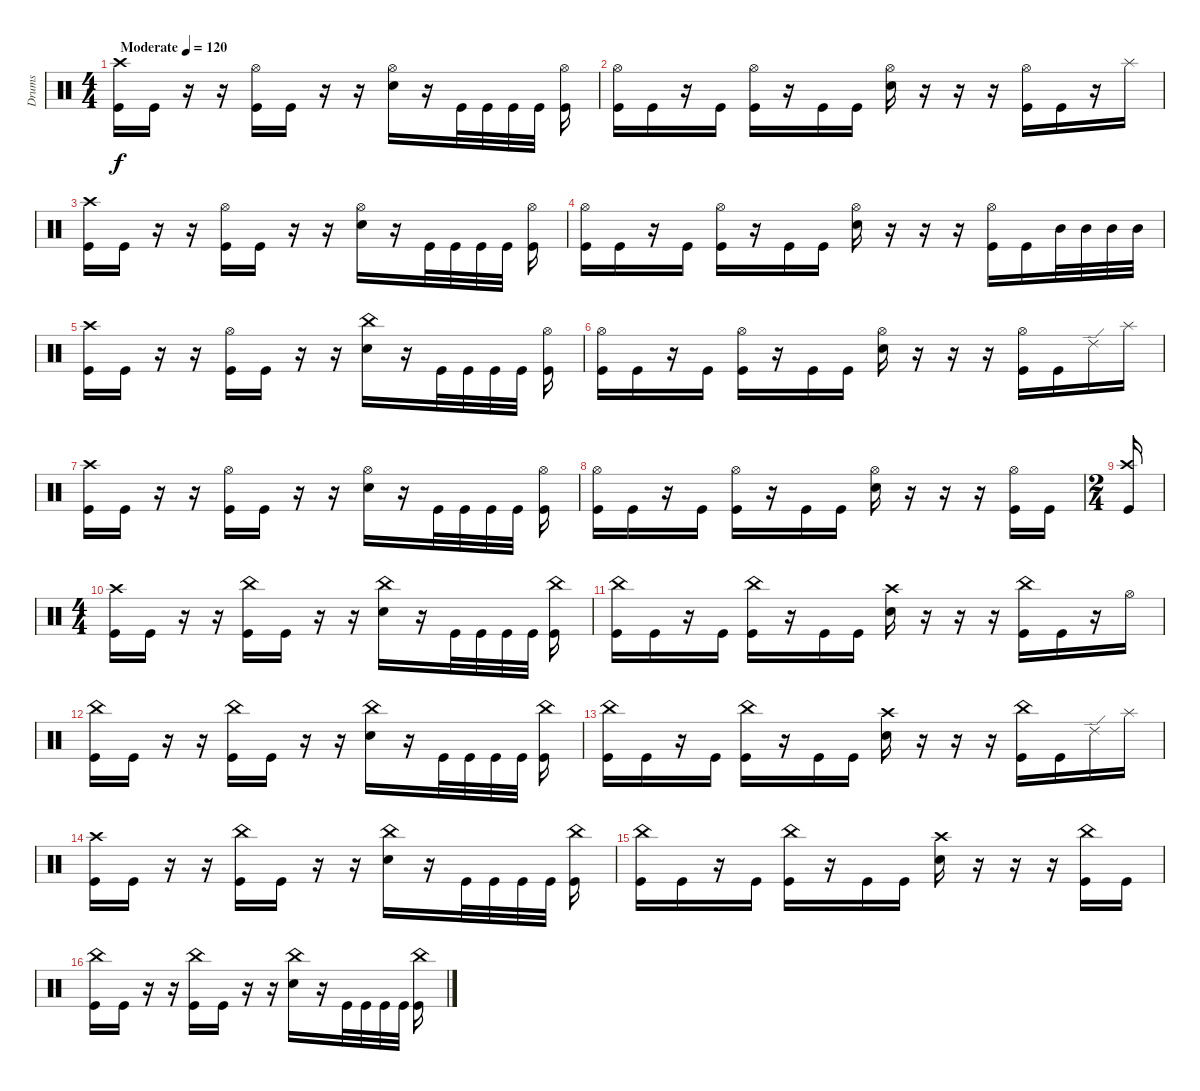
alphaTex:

\track ("Drums" "Drums") {instrument percussion}
\staff {score}
\articulation defaults
\ts (4 4)
\tempo (120 "Moderate")
\clef neutral
\ks c
("Crash high (hit)" "Kick (hit)").16{dy f} "Kick (hit)".16 r.16 r.16 ("Hi-Hat (open)" "Kick (hit)").16 "Kick (hit)".16 r.16 r.16 ("Hi-Hat (open)" "Electric Snare (hit)").16 r.16 "Kick (hit)".32 "Kick (hit)".32 "Kick (hit)".32 "Kick (hit)".32 ("Hi-Hat (open)" "Kick (hit)").16 |
("Hi-Hat (open)" "Kick (hit)").16 "Kick (hit)".16 r.16 "Kick (hit)".16 ("Hi-Hat (open)" "Kick (hit)").16 r.16 "Kick (hit)".16 "Kick (hit)".16 ("Hi-Hat (open)" "Electric Snare (hit)").16 r.16 r.16 r.16 ("Hi-Hat (open)" "Kick (hit)").16 "Kick (hit)".16 r.16 "Splash (hit)".16 |
("Crash high (hit)" "Kick (hit)").16 "Kick (hit)".16 r.16 r.16 ("Hi-Hat (open)" "Kick (hit)").16 "Kick (hit)".16 r.16 r.16 ("Hi-Hat (open)" "Electric Snare (hit)").16 r.16 "Kick (hit)".32 "Kick (hit)".32 "Kick (hit)".32 "Kick (hit)".32 ("Hi-Hat (open)" "Kick (hit)").16 |
("Hi-Hat (open)" "Kick (hit)").16 "Kick (hit)".16 r.16 "Kick (hit)".16 ("Hi-Hat (open)" "Kick (hit)").16 r.16 "Kick (hit)".16 "Kick (hit)".16 ("Hi-Hat (open)" "Electric Snare (hit)").16 r.16 r.16 r.16 ("Hi-Hat (open)" "Kick (hit)").16 "Kick (hit)".16 "Mid Tom (hit)".32 "Mid Tom (hit)".32 "Mid Tom (hit)".32 "Mid Tom (hit)".32 |
("Crash high (hit)" "Kick (hit)").16 "Kick (hit)".16 r.16 r.16 ("Hi-Hat (open)" "Kick (hit)").16 "Kick (hit)".16 r.16 r.16 ("China (hit)" "Electric Snare (hit)").16 r.16 "Kick (hit)".32 "Kick (hit)".32 "Kick (hit)".32 "Kick (hit)".32 ("Hi-Hat (open)" "Kick (hit)").16 |
("Hi-Hat (open)" "Kick (hit)").16 "Kick (hit)".16 r.16 "Kick (hit)".16 ("Hi-Hat (open)" "Kick (hit)").16 r.16 "Kick (hit)".16 "Kick (hit)".16 ("Hi-Hat (open)" "Electric Snare (hit)").16 r.16 r.16 r.16 ("Hi-Hat (open)" "Kick (hit)").16 "Kick (hit)".16 "Ride (edge) 2".16 "Splash (hit)".16 |
("Crash high (hit)" "Kick (hit)").16 "Kick (hit)".16 r.16 r.16 ("Hi-Hat (open)" "Kick (hit)").16 "Kick (hit)".16 r.16 r.16 ("Hi-Hat (open)" "Electric Snare (hit)").16 r.16 "Kick (hit)".32 "Kick (hit)".32 "Kick (hit)".32 "Kick (hit)".32 ("Hi-Hat (open)" "Kick (hit)").16 |
("Hi-Hat (open)" "Kick (hit)").16 "Kick (hit)".16 r.16 "Kick (hit)".16 ("Hi-Hat (open)" "Kick (hit)").16 r.16 "Kick (hit)".16 "Kick (hit)".16 ("Hi-Hat (open)" "Electric Snare (hit)").16 r.16 r.16 r.16 ("Hi-Hat (open)" "Kick (hit)").16 "Kick (hit)".16 |
\ts (2 4)
("Crash high (hit)" "Kick (hit)").16{beam Up} |
\ts (4 4)
("Crash high (hit)" "Kick (hit)").16 "Kick (hit)".16 r.16 r.16 ("China (hit)" "Kick (hit)").16 "Kick (hit)".16 r.16 r.16 ("China (hit)" "Electric Snare (hit)").16 r.16 "Kick (hit)".32 "Kick (hit)".32 "Kick (hit)".32 "Kick (hit)".32 ("China (hit)" "Kick (hit)").16 |
("China (hit)" "Kick (hit)").16 "Kick (hit)".16 r.16 "Kick (hit)".16 ("China (hit)" "Kick (hit)").16 r.16 "Kick (hit)".16 "Kick (hit)".16 ("Crash high (hit)" "Electric Snare (hit)").16 r.16 r.16 r.16 ("China (hit)" "Kick (hit)").16 "Kick (hit)".16 r.16 "Hi-Hat (open)".16 |
("China (hit)" "Kick (hit)").16 "Kick (hit)".16 r.16 r.16 ("China (hit)" "Kick (hit)").16 "Kick (hit)".16 r.16 r.16 ("China (hit)" "Electric Snare (hit)").16 r.16 "Kick (hit)".32 "Kick (hit)".32 "Kick (hit)".32 "Kick (hit)".32 ("China (hit)" "Kick (hit)").16 |
("China (hit)" "Kick (hit)").16 "Kick (hit)".16 r.16 "Kick (hit)".16 ("China (hit)" "Kick (hit)").16 r.16 "Kick (hit)".16 "Kick (hit)".16 ("Crash high (hit)" "Electric Snare (hit)").16 r.16 r.16 r.16 ("China (hit)" "Kick (hit)").16 "Kick (hit)".16 "Ride (edge) 2".16 "Splash (hit)".16 |
("Crash high (hit)" "Kick (hit)").16 "Kick (hit)".16 r.16 r.16 ("China (hit)" "Kick (hit)").16 "Kick (hit)".16 r.16 r.16 ("China (hit)" "Electric Snare (hit)").16 r.16 "Kick (hit)".32 "Kick (hit)".32 "Kick (hit)".32 "Kick (hit)".32 ("China (hit)" "Kick (hit)").16 |
("China (hit)" "Kick (hit)").16 "Kick (hit)".16 r.16 "Kick (hit)".16 ("China (hit)" "Kick (hit)").16 r.16 "Kick (hit)".16 "Kick (hit)".16 ("Crash high (hit)" "Electric Snare (hit)").16 r.16 r.16 r.16 ("China (hit)" "Kick (hit)").16 "Kick (hit)".16 |
("China (hit)" "Kick (hit)").16 "Kick (hit)".16 r.16 r.16 ("China (hit)" "Kick (hit)").16 "Kick (hit)".16 r.16 r.16 ("China (hit)" "Electric Snare (hit)").16 r.16 "Kick (hit)".32 "Kick (hit)".32 "Kick (hit)".32 "Kick (hit)".32 ("China (hit)" "Kick (hit)").16
